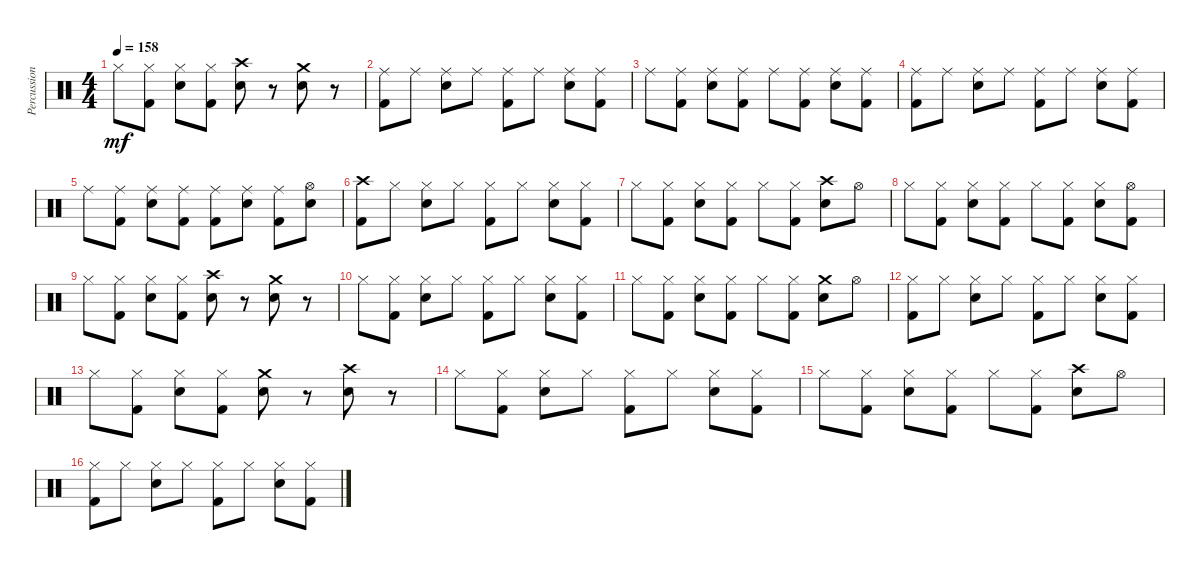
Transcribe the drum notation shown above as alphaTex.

\track ("Percussions" "Percussion") {instrument percussion}
\staff {score}
\articulation defaults
\ts (4 4)
\tempo 158
\clef neutral
\ks c "Hi-Hat (closed)".8{dy mf}
("Hi-Hat (closed)" "Kick (hit) 2").8 ("Hi-Hat (closed)" "Electric Snare (hit)").8 ("Hi-Hat (closed)" "Kick (hit) 2").8 ("Crash high (hit)" "Electric Snare (hit)").8 r.8 ("Crash medium (hit)" "Electric Snare (hit)").8 r.8 |
("Ride (middle)" "Kick (hit) 2").8 "Ride (middle)".8 ("Ride (middle)" "Electric Snare (hit)").8 "Ride (middle)".8 ("Ride (middle)" "Kick (hit) 2").8 "Ride (middle)".8 ("Ride (middle)" "Electric Snare (hit)").8 ("Ride (middle)" "Kick (hit) 2").8 |
"Ride (middle)".8 ("Ride (middle)" "Kick (hit) 2").8 ("Ride (middle)" "Electric Snare (hit)").8 ("Ride (middle)" "Kick (hit) 2").8 "Ride (middle)".8 ("Ride (middle)" "Kick (hit) 2").8 ("Ride (middle)" "Electric Snare (hit)").8 ("Ride (middle)" "Kick (hit) 2").8 |
("Ride (middle)" "Kick (hit) 2").8 "Ride (middle)".8 ("Ride (middle)" "Electric Snare (hit)").8 "Ride (middle)".8 ("Ride (middle)" "Kick (hit) 2").8 "Ride (middle)".8 ("Ride (middle)" "Electric Snare (hit)").8 ("Ride (middle)" "Kick (hit) 2").8 |
"Ride (middle)".8 ("Ride (middle)" "Kick (hit) 2").8 ("Ride (middle)" "Electric Snare (hit)").8 ("Ride (middle)" "Kick (hit) 2").8 ("Ride (middle)" "Kick (hit) 2").8 ("Ride (middle)" "Electric Snare (hit)").8 ("Ride (middle)" "Kick (hit) 2").8 ("Hi-Hat (open)" "Electric Snare (hit)").8 |
("Crash high (hit)" "Kick (hit) 2").8 "Hi-Hat (closed)".8 ("Hi-Hat (closed)" "Electric Snare (hit)").8 "Hi-Hat (closed)".8 ("Hi-Hat (closed)" "Kick (hit) 2").8 "Hi-Hat (closed)".8 ("Hi-Hat (closed)" "Electric Snare (hit)").8 ("Hi-Hat (closed)" "Kick (hit) 2").8 |
"Hi-Hat (closed)".8 ("Hi-Hat (closed)" "Kick (hit) 2").8 ("Hi-Hat (closed)" "Electric Snare (hit)").8 ("Hi-Hat (closed)" "Kick (hit) 2").8 "Hi-Hat (closed)".8 ("Hi-Hat (closed)" "Kick (hit) 2").8 ("Crash high (hit)" "Electric Snare (hit)").8 "Hi-Hat (open)".8 |
"Hi-Hat (closed)".8 ("Hi-Hat (closed)" "Kick (hit) 2").8 ("Hi-Hat (closed)" "Electric Snare (hit)").8 ("Hi-Hat (closed)" "Kick (hit) 2").8 "Hi-Hat (closed)".8 ("Hi-Hat (closed)" "Kick (hit) 2").8 ("Hi-Hat (closed)" "Electric Snare (hit)").8 ("Hi-Hat (open)" "Kick (hit) 2").8 |
"Hi-Hat (closed)".8 ("Hi-Hat (closed)" "Kick (hit) 2").8 ("Hi-Hat (closed)" "Electric Snare (hit)").8 ("Hi-Hat (closed)" "Kick (hit) 2").8 ("Crash high (hit)" "Electric Snare (hit)").8 r.8 ("Crash medium (hit)" "Electric Snare (hit)").8 r.8 |
"Hi-Hat (closed)".8 ("Hi-Hat (closed)" "Kick (hit) 2").8 ("Hi-Hat (closed)" "Electric Snare (hit)").8 "Hi-Hat (closed)".8 ("Hi-Hat (closed)" "Kick (hit) 2").8 "Hi-Hat (closed)".8 ("Hi-Hat (closed)" "Electric Snare (hit)").8 ("Hi-Hat (closed)" "Kick (hit) 2").8 |
"Hi-Hat (closed)".8 ("Hi-Hat (closed)" "Kick (hit) 2").8 ("Hi-Hat (closed)" "Electric Snare (hit)").8 ("Hi-Hat (closed)" "Kick (hit) 2").8 "Hi-Hat (closed)".8 ("Hi-Hat (closed)" "Kick (hit) 2").8 ("Crash medium (hit)" "Electric Snare (hit)").8 "Hi-Hat (open)".8 |
("Hi-Hat (closed)" "Kick (hit) 2").8 "Hi-Hat (closed)".8 ("Hi-Hat (closed)" "Electric Snare (hit)").8 "Hi-Hat (closed)".8 ("Hi-Hat (closed)" "Kick (hit) 2").8 "Hi-Hat (closed)".8 ("Hi-Hat (closed)" "Electric Snare (hit)").8 ("Hi-Hat (closed)" "Kick (hit) 2").8 |
"Hi-Hat (closed)".8 ("Hi-Hat (closed)" "Kick (hit) 2").8 ("Hi-Hat (closed)" "Electric Snare (hit)").8 ("Hi-Hat (closed)" "Kick (hit) 2").8 ("Crash medium (hit)" "Electric Snare (hit)").8 r.8 ("Crash high (hit)" "Electric Snare (hit)").8 r.8 |
"Hi-Hat (closed)".8 ("Hi-Hat (closed)" "Kick (hit) 2").8 ("Hi-Hat (closed)" "Electric Snare (hit)").8 "Hi-Hat (closed)".8 ("Hi-Hat (closed)" "Kick (hit) 2").8 "Hi-Hat (closed)".8 ("Hi-Hat (closed)" "Electric Snare (hit)").8 ("Hi-Hat (closed)" "Kick (hit) 2").8 |
"Hi-Hat (closed)".8 ("Hi-Hat (closed)" "Kick (hit) 2").8 ("Hi-Hat (closed)" "Electric Snare (hit)").8 ("Hi-Hat (closed)" "Kick (hit) 2").8 "Hi-Hat (closed)".8 ("Hi-Hat (closed)" "Kick (hit) 2").8 ("Crash high (hit)" "Electric Snare (hit)").8 "Hi-Hat (open)".8 |
("Hi-Hat (closed)" "Kick (hit) 2").8 "Hi-Hat (closed)".8 ("Hi-Hat (closed)" "Electric Snare (hit)").8 "Hi-Hat (closed)".8 ("Hi-Hat (closed)" "Kick (hit) 2").8 "Hi-Hat (closed)".8 ("Hi-Hat (closed)" "Electric Snare (hit)").8 ("Hi-Hat (closed)" "Kick (hit) 2").8
